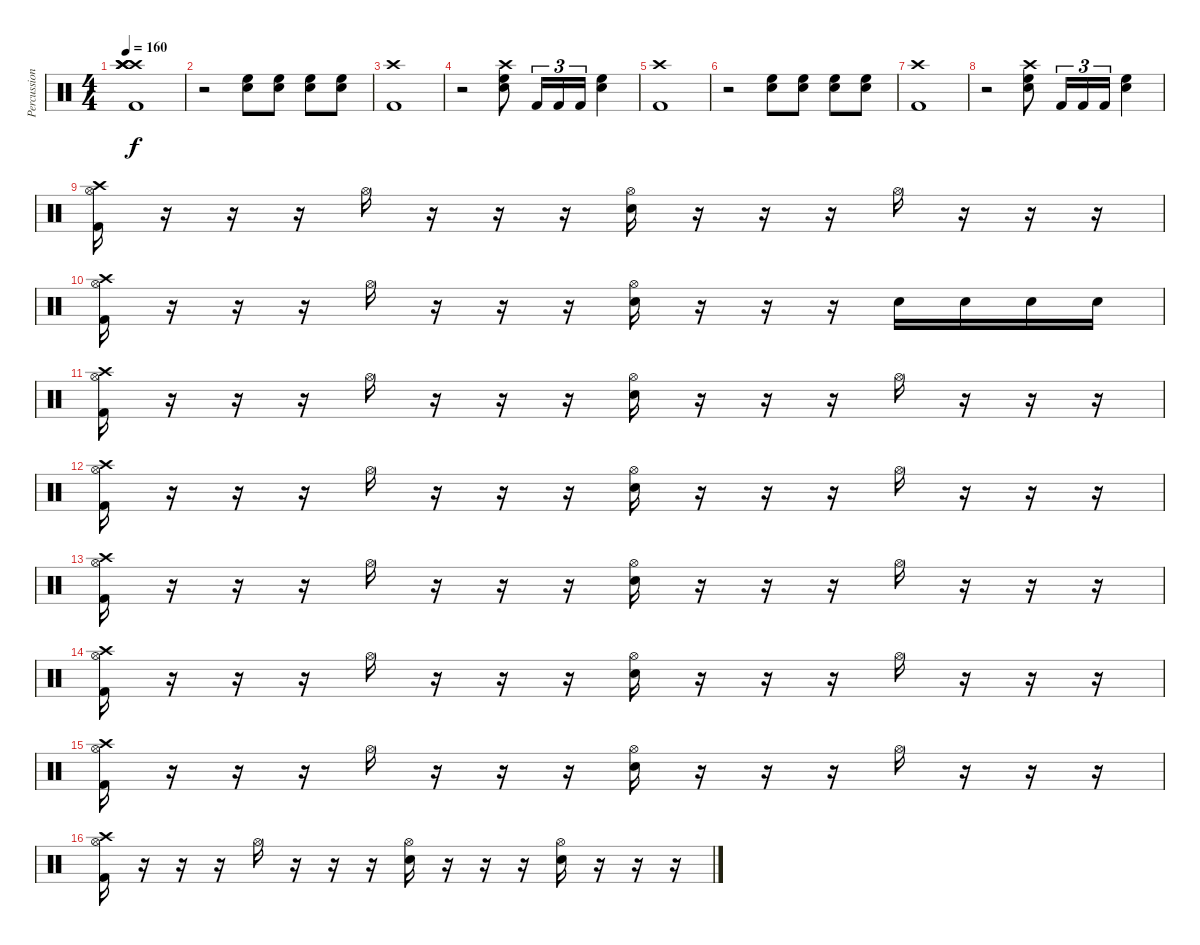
\track ("Percussion" "Percussion") {instrument percussion}
\staff {score}
\articulation defaults
\ts (4 4)
\tempo 160
\clef neutral
\ks c
("Kick (hit) 2" "Crash high (hit)" "Crash high (hit)" "Crash high (hit)" "Crash high (hit)").1{dy f} |
r.2 ("Electric Snare (hit)" "High Floor Tom (hit)").8 ("Electric Snare (hit)" "High Floor Tom (hit)").8 ("Electric Snare (hit)" "High Floor Tom (hit)").8 ("Electric Snare (hit)" "High Floor Tom (hit)").8 |
("Kick (hit) 2" "Crash high (hit)").1 |
r.2 ("Electric Snare (hit)" "High Floor Tom (hit)" "Crash high (hit)").8 "Kick (hit) 2".16{tu (3 2)} "Kick (hit) 2".16{tu (3 2)} "Kick (hit) 2".16{tu (3 2)} ("Electric Snare (hit)" "High Floor Tom (hit)").4 |
("Kick (hit) 2" "Crash high (hit)").1 |
r.2 ("Electric Snare (hit)" "High Floor Tom (hit)").8 ("Electric Snare (hit)" "High Floor Tom (hit)").8 ("Electric Snare (hit)" "High Floor Tom (hit)").8 ("Electric Snare (hit)" "High Floor Tom (hit)").8 |
("Kick (hit) 2" "Crash high (hit)").1 |
r.2 ("Electric Snare (hit)" "High Floor Tom (hit)" "Crash high (hit)").8 "Kick (hit) 2".16{tu (3 2)} "Kick (hit) 2".16{tu (3 2)} "Kick (hit) 2".16{tu (3 2)} ("Electric Snare (hit)" "High Floor Tom (hit)").4 |
("Kick (hit) 2" "Hi-Hat (open)" "Crash high (hit)").16 r.16 r.16 r.16 "Hi-Hat (open)".16 r.16 r.16 r.16 ("Electric Snare (hit)" "Hi-Hat (open)").16 r.16 r.16 r.16 "Hi-Hat (open)".16 r.16 r.16 r.16 |
("Kick (hit) 2" "Hi-Hat (open)" "Crash high (hit)").16 r.16 r.16 r.16 "Hi-Hat (open)".16 r.16 r.16 r.16 ("Electric Snare (hit)" "Hi-Hat (open)").16 r.16 r.16 r.16 "Electric Snare (hit)".16 "Electric Snare (hit)".16 "Electric Snare (hit)".16 "Electric Snare (hit)".16 |
("Kick (hit) 2" "Hi-Hat (open)" "Crash high (hit)").16 r.16 r.16 r.16 "Hi-Hat (open)".16 r.16 r.16 r.16 ("Electric Snare (hit)" "Hi-Hat (open)").16 r.16 r.16 r.16 "Hi-Hat (open)".16 r.16 r.16 r.16 |
("Kick (hit) 2" "Hi-Hat (open)" "Crash high (hit)").16 r.16 r.16 r.16 "Hi-Hat (open)".16 r.16 r.16 r.16 ("Electric Snare (hit)" "Hi-Hat (open)").16 r.16 r.16 r.16 "Hi-Hat (open)".16 r.16 r.16 r.16 |
("Kick (hit) 2" "Hi-Hat (open)" "Crash high (hit)").16 r.16 r.16 r.16 "Hi-Hat (open)".16 r.16 r.16 r.16 ("Electric Snare (hit)" "Hi-Hat (open)").16 r.16 r.16 r.16 "Hi-Hat (open)".16 r.16 r.16 r.16 |
("Kick (hit) 2" "Hi-Hat (open)" "Crash high (hit)").16 r.16 r.16 r.16 "Hi-Hat (open)".16 r.16 r.16 r.16 ("Electric Snare (hit)" "Hi-Hat (open)").16 r.16 r.16 r.16 "Hi-Hat (open)".16 r.16 r.16 r.16 |
("Kick (hit) 2" "Hi-Hat (open)" "Crash high (hit)").16 r.16 r.16 r.16 "Hi-Hat (open)".16 r.16 r.16 r.16 ("Electric Snare (hit)" "Hi-Hat (open)").16 r.16 r.16 r.16 "Hi-Hat (open)".16 r.16 r.16 r.16 |
("Kick (hit) 2" "Hi-Hat (open)" "Crash high (hit)").16 r.16 r.16 r.16 "Hi-Hat (open)".16 r.16 r.16 r.16 ("Electric Snare (hit)" "Hi-Hat (open)").16 r.16 r.16 r.16 ("Electric Snare (hit)" "Hi-Hat (open)").16 r.16 r.16 r.16
